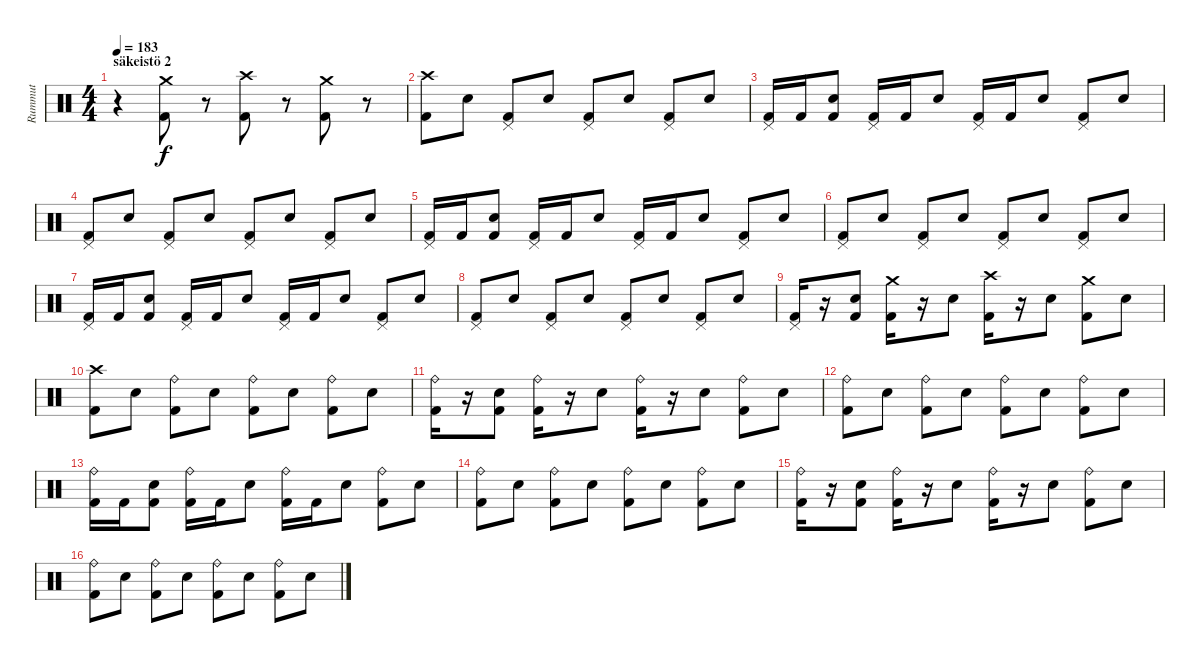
\track ("Rummut" "Rummut") {instrument percussion}
\staff {score}
\articulation defaults
\ts (4 4)
\section ("" "säkeistö 2")
\tempo 183
\clef neutral
\ks c
r.4{dy f} ("Crash medium (hit)" "Kick (hit) 2").8 r.8 ("Crash high (hit)" "Kick (hit) 2").8 r.8 ("Crash medium (hit)" "Kick (hit) 2").8 r.8 |
("Crash high (hit)" "Kick (hit) 2").8 "Electric Snare (hit)".8 ("Pedal Hi-Hat (hit)" "Kick (hit) 2").8 "Electric Snare (hit)".8 ("Pedal Hi-Hat (hit)" "Kick (hit) 2").8 "Electric Snare (hit)".8 ("Pedal Hi-Hat (hit)" "Kick (hit) 2").8 "Electric Snare (hit)".8 |
("Pedal Hi-Hat (hit)" "Kick (hit) 2").16 "Kick (hit) 2".16 ("Electric Snare (hit)" "Kick (hit) 2").8 ("Pedal Hi-Hat (hit)" "Kick (hit) 2").16 "Kick (hit) 2".16 "Electric Snare (hit)".8 ("Pedal Hi-Hat (hit)" "Kick (hit) 2").16 "Kick (hit) 2".16 "Electric Snare (hit)".8 ("Pedal Hi-Hat (hit)" "Kick (hit) 2").8 "Electric Snare (hit)".8 |
("Pedal Hi-Hat (hit)" "Kick (hit) 2").8 "Electric Snare (hit)".8 ("Pedal Hi-Hat (hit)" "Kick (hit) 2").8 "Electric Snare (hit)".8 ("Pedal Hi-Hat (hit)" "Kick (hit) 2").8 "Electric Snare (hit)".8 ("Pedal Hi-Hat (hit)" "Kick (hit) 2").8 "Electric Snare (hit)".8 |
("Pedal Hi-Hat (hit)" "Kick (hit) 2").16 "Kick (hit) 2".16 ("Electric Snare (hit)" "Kick (hit) 2").8 ("Pedal Hi-Hat (hit)" "Kick (hit) 2").16 "Kick (hit) 2".16 "Electric Snare (hit)".8 ("Pedal Hi-Hat (hit)" "Kick (hit) 2").16 "Kick (hit) 2".16 "Electric Snare (hit)".8 ("Pedal Hi-Hat (hit)" "Kick (hit) 2").8 "Electric Snare (hit)".8 |
("Pedal Hi-Hat (hit)" "Kick (hit) 2").8 "Electric Snare (hit)".8 ("Pedal Hi-Hat (hit)" "Kick (hit) 2").8 "Electric Snare (hit)".8 ("Pedal Hi-Hat (hit)" "Kick (hit) 2").8 "Electric Snare (hit)".8 ("Pedal Hi-Hat (hit)" "Kick (hit) 2").8 "Electric Snare (hit)".8 |
("Pedal Hi-Hat (hit)" "Kick (hit) 2").16 "Kick (hit) 2".16 ("Electric Snare (hit)" "Kick (hit) 2").8 ("Pedal Hi-Hat (hit)" "Kick (hit) 2").16 "Kick (hit) 2".16 "Electric Snare (hit)".8 ("Pedal Hi-Hat (hit)" "Kick (hit) 2").16 "Kick (hit) 2".16 "Electric Snare (hit)".8 ("Pedal Hi-Hat (hit)" "Kick (hit) 2").8 "Electric Snare (hit)".8 |
("Pedal Hi-Hat (hit)" "Kick (hit) 2").8 "Electric Snare (hit)".8 ("Pedal Hi-Hat (hit)" "Kick (hit) 2").8 "Electric Snare (hit)".8 ("Pedal Hi-Hat (hit)" "Kick (hit) 2").8 "Electric Snare (hit)".8 ("Pedal Hi-Hat (hit)" "Kick (hit) 2").8 "Electric Snare (hit)".8 |
("Pedal Hi-Hat (hit)" "Kick (hit) 2").16 r.16 ("Electric Snare (hit)" "Kick (hit) 2").8 ("Crash medium (hit)" "Kick (hit) 2").16 r.16 "Electric Snare (hit)".8 ("Crash high (hit)" "Kick (hit) 2").16 r.16 "Electric Snare (hit)".8 ("Crash medium (hit)" "Kick (hit) 2").8 "Electric Snare (hit)".8 |
("Crash high (hit)" "Kick (hit) 2").8 "Electric Snare (hit)".8 ("Ride (bell)" "Kick (hit) 2").8 "Electric Snare (hit)".8 ("Ride (bell)" "Kick (hit) 2").8 "Electric Snare (hit)".8 ("Ride (bell)" "Kick (hit) 2").8 "Electric Snare (hit)".8 |
("Ride (bell)" "Kick (hit) 2").16 r.16 ("Electric Snare (hit)" "Kick (hit) 2").8 ("Ride (bell)" "Kick (hit) 2").16 r.16 "Electric Snare (hit)".8 ("Ride (bell)" "Kick (hit) 2").16 r.16 "Electric Snare (hit)".8 ("Ride (bell)" "Kick (hit) 2").8 "Electric Snare (hit)".8 |
("Ride (bell)" "Kick (hit) 2").8 "Electric Snare (hit)".8 ("Ride (bell)" "Kick (hit) 2").8 "Electric Snare (hit)".8 ("Ride (bell)" "Kick (hit) 2").8 "Electric Snare (hit)".8 ("Ride (bell)" "Kick (hit) 2").8 "Electric Snare (hit)".8 |
("Ride (bell)" "Kick (hit) 2").16 "Kick (hit) 2".16 ("Electric Snare (hit)" "Kick (hit) 2").8 ("Ride (bell)" "Kick (hit) 2").16 "Kick (hit) 2".16 "Electric Snare (hit)".8 ("Ride (bell)" "Kick (hit) 2").16 "Kick (hit) 2".16 "Electric Snare (hit)".8 ("Ride (bell)" "Kick (hit) 2").8 "Electric Snare (hit)".8 |
("Ride (bell)" "Kick (hit) 2").8 "Electric Snare (hit)".8 ("Ride (bell)" "Kick (hit) 2").8 "Electric Snare (hit)".8 ("Ride (bell)" "Kick (hit) 2").8 "Electric Snare (hit)".8 ("Ride (bell)" "Kick (hit) 2").8 "Electric Snare (hit)".8 |
("Ride (bell)" "Kick (hit) 2").16 r.16 ("Electric Snare (hit)" "Kick (hit) 2").8 ("Ride (bell)" "Kick (hit) 2").16 r.16 "Electric Snare (hit)".8 ("Ride (bell)" "Kick (hit) 2").16 r.16 "Electric Snare (hit)".8 ("Ride (bell)" "Kick (hit) 2").8 "Electric Snare (hit)".8 |
("Ride (bell)" "Kick (hit) 2").8 "Electric Snare (hit)".8 ("Ride (bell)" "Kick (hit) 2").8 "Electric Snare (hit)".8 ("Ride (bell)" "Kick (hit) 2").8 "Electric Snare (hit)".8 ("Ride (bell)" "Kick (hit) 2").8 "Electric Snare (hit)".8
